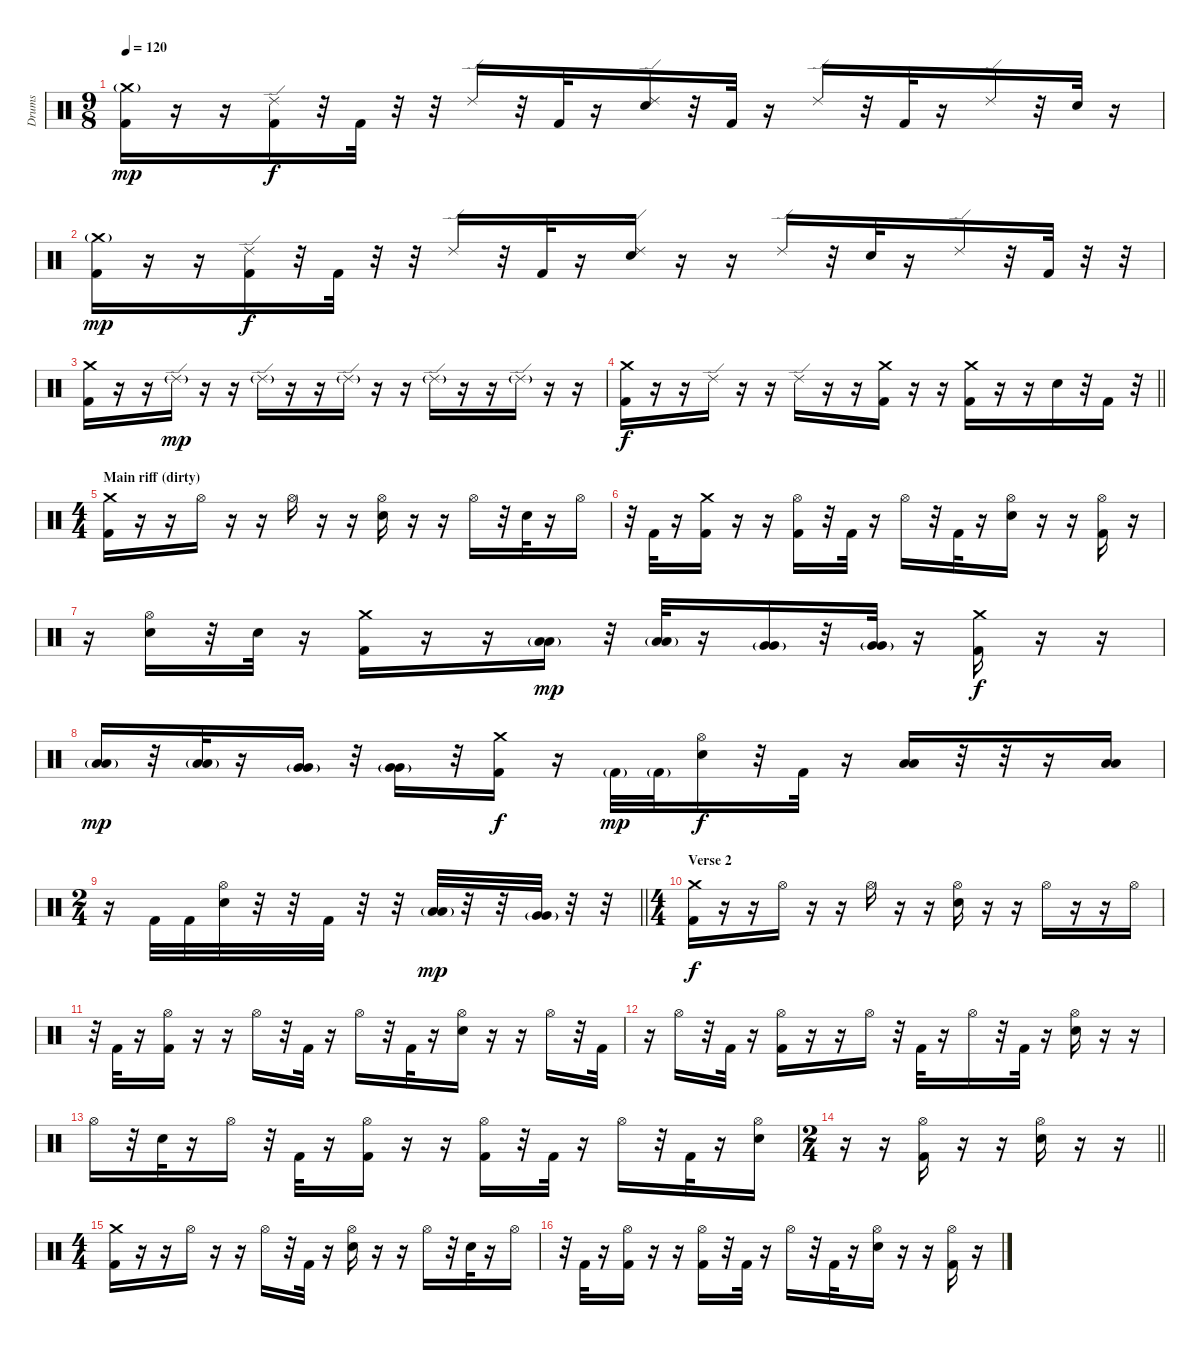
\track ("Drums" "Drums") {instrument percussion}
\staff {score}
\articulation defaults
\ts (9 8)
\tempo 120
\clef neutral
\ks c
("Crash medium (hit)"{g} "Kick (hit) 2").16{dy mp} r.16 r.16 ("Ride (edge) 2" "Kick (hit) 2").16{dy f} r.32 "Kick (hit) 2".32 r.32 r.32 "Ride (edge) 2".16 r.32 "Kick (hit) 2".32 r.16 ("Ride (edge) 2" "Electric Snare (hit)").16 r.32 "Kick (hit) 2".32 r.16 "Ride (edge) 2".16 r.32 "Kick (hit) 2".32 r.16 "Ride (edge) 2".16 r.32 "Electric Snare (hit)".32 r.16 |
("Crash medium (hit)"{g} "Kick (hit) 2").16{dy mp} r.16 r.16 ("Ride (edge) 2" "Kick (hit) 2").16{dy f} r.32 "Kick (hit) 2".32 r.32 r.32 "Ride (edge) 2".16 r.32 "Kick (hit) 2".32 r.16 ("Ride (edge) 2" "Electric Snare (hit)").16 r.16 r.16 "Ride (edge) 2".16 r.32 "Electric Snare (hit)".32 r.16 "Ride (edge) 2".16 r.32 "Kick (hit) 2".32 r.32 r.32 |
("Crash medium (hit)" "Kick (hit) 2").16 r.16 r.16 "Ride (edge) 2"{g}.16{dy mp} r.16 r.16 "Ride (edge) 2"{g}.16 r.16 r.16 "Ride (edge) 2"{g}.16 r.16 r.16 "Ride (edge) 2"{g}.16 r.16 r.16 "Ride (edge) 2"{g}.16 r.16 r.16 |
\barLineRight lightlight
("Crash medium (hit)" "Kick (hit) 2").16{dy f} r.16 r.16 "Ride (edge) 2".16 r.16 r.16 "Ride (edge) 2".16 r.16 r.16 ("Crash medium (hit)" "Kick (hit) 2").16 r.16 r.16 ("Crash medium (hit)" "Kick (hit) 2").16 r.16 r.16 "Electric Snare (hit)".16 r.32 "Kick (hit) 2".16 r.32 |
\ts (4 4)
\section ("" "Main riff (dirty)")
("Crash medium (hit)" "Kick (hit) 2").16 r.16 r.16 "Hi-Hat (open)".16 r.16 r.16 "Hi-Hat (open)".16 r.16 r.16 ("Hi-Hat (open)" "Electric Snare (hit)").16 r.16 r.16 "Hi-Hat (open)".16 r.32 "Electric Snare (hit)".32 r.16 "Hi-Hat (open)".16 |
r.32 "Kick (hit) 2".32 r.16 ("Crash medium (hit)" "Kick (hit) 2").16 r.16 r.16 ("Hi-Hat (open)" "Kick (hit) 2").16 r.32 "Kick (hit) 2".32 r.16 "Hi-Hat (open)".16 r.32 "Kick (hit) 2".32 r.16 ("Hi-Hat (open)" "Electric Snare (hit)").16 r.16 r.16 ("Hi-Hat (open)" "Kick (hit) 2").16 r.16 |
r.16 ("Hi-Hat (open)" "Electric Snare (hit)").16 r.32 "Electric Snare (hit)".32 r.16 ("Crash medium (hit)" "Kick (hit) 2").16 r.16 r.16 ("Low Tom (hit)"{g} "Low Tom (hit)").16{dy mp} r.32 ("Low Tom (hit)"{g} "Low Tom (hit)").32 r.16 ("Very Low Tom (hit)"{g} "Very Low Tom (hit)").16 r.32 ("Very Low Tom (hit)"{g} "Very Low Tom (hit)").32 r.16 ("Crash medium (hit)" "Kick (hit) 2").16{dy f} r.16 r.16 |
("Low Tom (hit)"{g} "Low Tom (hit)").16{dy mp} r.32 ("Low Tom (hit)"{g} "Low Tom (hit)").32 r.16 ("Very Low Tom (hit)"{g} "Very Low Tom (hit)").16 r.32 ("Very Low Tom (hit)"{g} "Very Low Tom (hit)").16 r.32 ("Crash medium (hit)" "Kick (hit) 2").16{dy f} r.16 "Kick (hit) 2"{g}.32{dy mp} "Kick (hit) 2"{g}.32 ("Hi-Hat (open)" "Electric Snare (hit)").16{dy f} r.32 "Kick (hit) 2".32 r.16 ("Low Tom (hit)" "Low Tom (hit)").16 r.32 r.32 r.16 ("Low Tom (hit)" "Low Tom (hit)").16 |
\ts (2 4)
\barLineRight lightlight
r.16 "Kick (hit) 2".32 "Kick (hit) 2".32 ("Hi-Hat (open)" "Electric Snare (hit)").32 r.32 r.32 "Kick (hit) 2".32 r.32 r.32 ("Low Tom (hit)"{g} "Low Tom (hit)").32{dy mp} r.32 r.32 ("Very Low Tom (hit)"{g} "Very Low Tom (hit)").32 r.32 r.32 |
\ts (4 4)
\section ("" "Verse 2")
("Crash medium (hit)" "Kick (hit) 2").16{dy f} r.16 r.16 "Hi-Hat (open)".16 r.16 r.16 "Hi-Hat (open)".16 r.16 r.16 ("Hi-Hat (open)" "Electric Snare (hit)").16 r.16 r.16 "Hi-Hat (open)".16 r.16 r.16 "Hi-Hat (open)".16 |
r.32 "Kick (hit) 2".32 r.16 ("Hi-Hat (open)" "Kick (hit) 2").16 r.16 r.16 "Hi-Hat (open)".16 r.32 "Kick (hit) 2".32 r.16 "Hi-Hat (open)".16 r.32 "Kick (hit) 2".32 r.16 ("Hi-Hat (open)" "Electric Snare (hit)").16 r.16 r.16 "Hi-Hat (open)".16 r.32 "Kick (hit) 2".32 |
r.16 "Hi-Hat (open)".16 r.32 "Kick (hit) 2".32 r.16 ("Hi-Hat (open)" "Kick (hit) 2").16 r.16 r.16 "Hi-Hat (open)".16 r.32 "Kick (hit) 2".32 r.16 "Hi-Hat (open)".16 r.32 "Kick (hit) 2".32 r.16 ("Hi-Hat (open)" "Electric Snare (hit)").16 r.16 r.16 |
"Hi-Hat (open)".16 r.32 "Electric Snare (hit)".32 r.16 "Hi-Hat (open)".16 r.32 "Kick (hit) 2".32 r.16 ("Hi-Hat (open)" "Kick (hit) 2").16 r.16 r.16 ("Hi-Hat (open)" "Kick (hit) 2").16 r.32 "Kick (hit) 2".32 r.16 "Hi-Hat (open)".16 r.32 "Kick (hit) 2".32 r.16 ("Hi-Hat (open)" "Electric Snare (hit)").16 |
\ts (2 4)
\barLineRight lightlight
r.16 r.16 ("Hi-Hat (open)" "Kick (hit) 2").16 r.16 r.16 ("Hi-Hat (open)" "Electric Snare (hit)").16 r.16 r.16 |
\ts (4 4)
("Crash medium (hit)" "Kick (hit) 2").16 r.16 r.16 "Hi-Hat (open)".16 r.16 r.16 "Hi-Hat (open)".16 r.32 "Kick (hit) 2".32 r.16 ("Hi-Hat (open)" "Electric Snare (hit)").16 r.16 r.16 "Hi-Hat (open)".16 r.32 "Electric Snare (hit)".32 r.16 "Hi-Hat (open)".16 |
r.32 "Kick (hit) 2".32 r.16 ("Hi-Hat (open)" "Kick (hit) 2").16 r.16 r.16 ("Hi-Hat (open)" "Kick (hit) 2").16 r.32 "Kick (hit) 2".32 r.16 "Hi-Hat (open)".16 r.32 "Kick (hit) 2".32 r.16 ("Hi-Hat (open)" "Electric Snare (hit)").16 r.16 r.16 ("Hi-Hat (open)" "Kick (hit) 2").16 r.16
